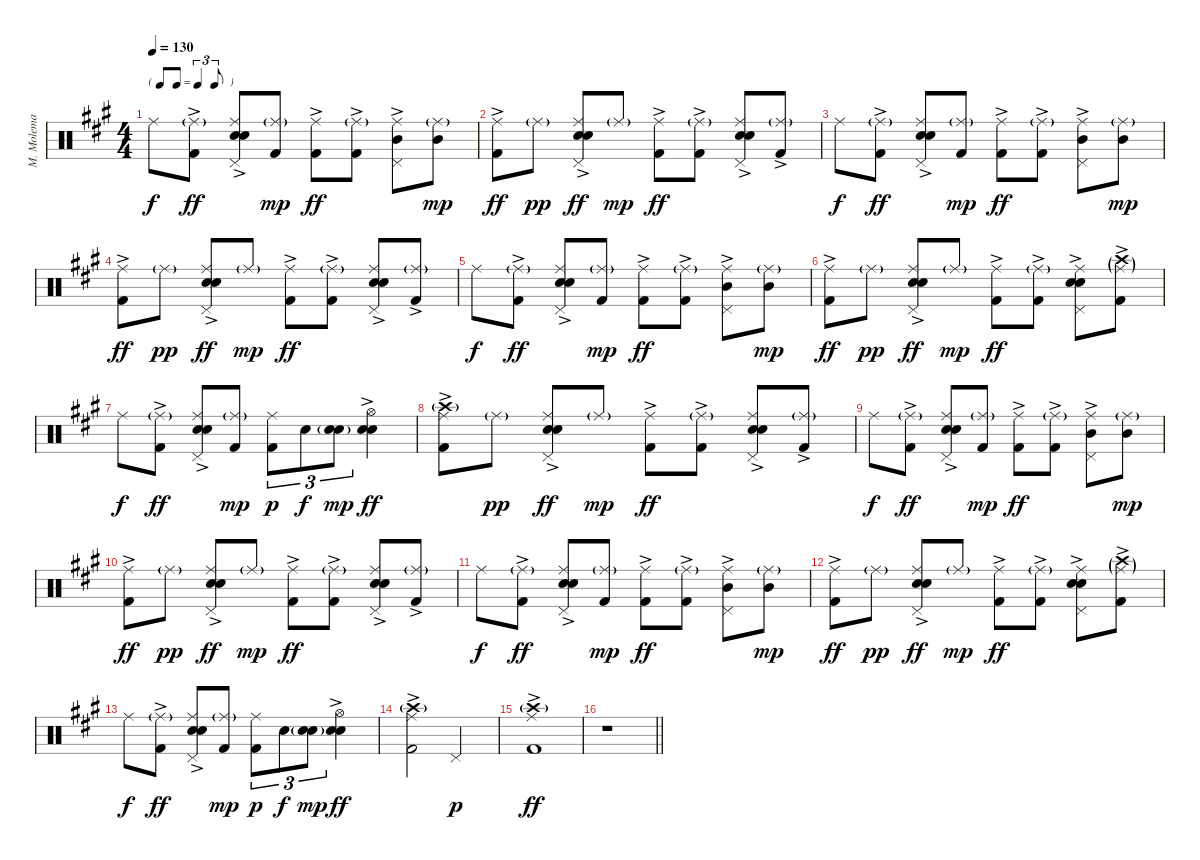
\track ("M. Molema" "M. Molema") {instrument percussion}
\staff {score}
\articulation defaults
\ts (4 4)
\tf triplet8th
\tempo 130
\clef neutral
\ks a "Ride (middle)".8{dy f}
("Ride (middle)"{g} "Kick (hit) 2"{ac}).8{dy ff} ("Ride (middle)" "Electric Snare (hit)"{ac} "Snare (hit) 2" "Pedal Hi-Hat (hit)").8 ("Ride (middle)"{g} "Kick (hit) 2").8{dy mp} ("Ride (middle)" "Kick (hit) 2"{ac}).8{dy ff} ("Ride (middle)"{g} "Kick (hit) 2"{ac}).8 ("Ride (middle)" "Mid Tom (hit)"{ac} "Pedal Hi-Hat (hit)").8 ("Ride (middle)"{g} "Mid Tom (hit)").8{dy mp} |
("Ride (middle)" "Kick (hit) 2"{ac}).8{dy ff} "Ride (middle)"{g}.8{dy pp} ("Ride (middle)" "Electric Snare (hit)"{ac} "Snare (hit) 2" "Pedal Hi-Hat (hit)").8{dy ff} "Ride (middle)"{g}.8{dy mp} ("Ride (middle)" "Kick (hit) 2"{ac}).8{dy ff} ("Ride (middle)"{g} "Kick (hit) 2"{ac}).8 ("Ride (middle)" "Electric Snare (hit)"{ac} "Snare (hit) 2" "Pedal Hi-Hat (hit)").8 ("Ride (middle)"{g} "Kick (hit) 2"{ac}).8 |
"Ride (middle)".8{dy f} ("Ride (middle)"{g} "Kick (hit) 2"{ac}).8{dy ff} ("Ride (middle)" "Electric Snare (hit)"{ac} "Snare (hit) 2" "Pedal Hi-Hat (hit)").8 ("Ride (middle)"{g} "Kick (hit) 2").8{dy mp} ("Ride (middle)" "Kick (hit) 2"{ac}).8{dy ff} ("Ride (middle)"{g} "Kick (hit) 2"{ac}).8 ("Ride (middle)" "Mid Tom (hit)"{ac} "Pedal Hi-Hat (hit)").8 ("Ride (middle)"{g} "Mid Tom (hit)").8{dy mp} |
("Ride (middle)" "Kick (hit) 2"{ac}).8{dy ff} "Ride (middle)"{g}.8{dy pp} ("Ride (middle)" "Electric Snare (hit)"{ac} "Snare (hit) 2" "Pedal Hi-Hat (hit)").8{dy ff} "Ride (middle)"{g}.8{dy mp} ("Ride (middle)" "Kick (hit) 2"{ac}).8{dy ff} ("Ride (middle)"{g} "Kick (hit) 2"{ac}).8 ("Ride (middle)" "Electric Snare (hit)"{ac} "Snare (hit) 2" "Pedal Hi-Hat (hit)").8 ("Ride (middle)"{g} "Kick (hit) 2"{ac}).8 |
"Ride (middle)".8{dy f} ("Ride (middle)"{g} "Kick (hit) 2"{ac}).8{dy ff} ("Ride (middle)" "Electric Snare (hit)"{ac} "Snare (hit) 2" "Pedal Hi-Hat (hit)").8 ("Ride (middle)"{g} "Kick (hit) 2").8{dy mp} ("Ride (middle)" "Kick (hit) 2"{ac}).8{dy ff} ("Ride (middle)"{g} "Kick (hit) 2"{ac}).8 ("Ride (middle)" "Mid Tom (hit)"{ac} "Pedal Hi-Hat (hit)").8 ("Ride (middle)"{g} "Mid Tom (hit)").8{dy mp} |
("Ride (middle)" "Kick (hit) 2"{ac}).8{dy ff} "Ride (middle)"{g}.8{dy pp} ("Ride (middle)" "Electric Snare (hit)"{ac} "Snare (hit) 2" "Pedal Hi-Hat (hit)").8{dy ff} "Ride (middle)"{g}.8{dy mp} ("Ride (middle)" "Kick (hit) 2"{ac}).8{dy ff} ("Ride (middle)"{g} "Kick (hit) 2"{ac}).8 ("Ride (middle)" "Electric Snare (hit)"{ac} "Snare (hit) 2" "Pedal Hi-Hat (hit)").8 ("Ride (middle)"{g} "Crash high (hit)"{g} "Kick (hit) 2"{ac}).8 |
"Ride (middle)".8{dy f} ("Ride (middle)"{g} "Kick (hit) 2"{ac}).8{dy ff} ("Ride (middle)" "Electric Snare (hit)"{ac} "Snare (hit) 2" "Pedal Hi-Hat (hit)").8 ("Ride (middle)"{g} "Kick (hit) 2").8{dy mp} ("Ride (middle)" "Kick (hit) 2").8{tu (3 2) dy p} "Snare (hit) 2".8{tu (3 2) dy f} ("Electric Snare (hit)"{g} "Snare (hit) 2").8{tu (3 2) dy mp} ("Hi-Hat (open)" "Electric Snare (hit)"{ac} "Snare (hit) 2").4{dy ff} |
("Ride (middle)" "Crash high (hit)"{g} "Kick (hit) 2"{ac}).8 "Ride (middle)"{g}.8{dy pp} ("Ride (middle)" "Electric Snare (hit)"{ac} "Snare (hit) 2" "Pedal Hi-Hat (hit)").8{dy ff} "Ride (middle)"{g}.8{dy mp} ("Ride (middle)" "Kick (hit) 2"{ac}).8{dy ff} ("Ride (middle)"{g} "Kick (hit) 2"{ac}).8 ("Ride (middle)" "Electric Snare (hit)"{ac} "Snare (hit) 2" "Pedal Hi-Hat (hit)").8 ("Ride (middle)"{g} "Kick (hit) 2"{ac}).8 |
"Ride (middle)".8{dy f} ("Ride (middle)"{g} "Kick (hit) 2"{ac}).8{dy ff} ("Ride (middle)" "Electric Snare (hit)"{ac} "Snare (hit) 2" "Pedal Hi-Hat (hit)").8 ("Ride (middle)"{g} "Kick (hit) 2").8{dy mp} ("Ride (middle)" "Kick (hit) 2"{ac}).8{dy ff} ("Ride (middle)"{g} "Kick (hit) 2"{ac}).8 ("Ride (middle)" "Mid Tom (hit)"{ac} "Pedal Hi-Hat (hit)").8 ("Ride (middle)"{g} "Mid Tom (hit)").8{dy mp} |
("Ride (middle)" "Kick (hit) 2"{ac}).8{dy ff} "Ride (middle)"{g}.8{dy pp} ("Ride (middle)" "Electric Snare (hit)"{ac} "Snare (hit) 2" "Pedal Hi-Hat (hit)").8{dy ff} "Ride (middle)"{g}.8{dy mp} ("Ride (middle)" "Kick (hit) 2"{ac}).8{dy ff} ("Ride (middle)"{g} "Kick (hit) 2"{ac}).8 ("Ride (middle)" "Electric Snare (hit)"{ac} "Snare (hit) 2" "Pedal Hi-Hat (hit)").8 ("Ride (middle)"{g} "Kick (hit) 2"{ac}).8 |
"Ride (middle)".8{dy f} ("Ride (middle)"{g} "Kick (hit) 2"{ac}).8{dy ff} ("Ride (middle)" "Electric Snare (hit)"{ac} "Snare (hit) 2" "Pedal Hi-Hat (hit)").8 ("Ride (middle)"{g} "Kick (hit) 2").8{dy mp} ("Ride (middle)" "Kick (hit) 2"{ac}).8{dy ff} ("Ride (middle)"{g} "Kick (hit) 2"{ac}).8 ("Ride (middle)" "Mid Tom (hit)"{ac} "Pedal Hi-Hat (hit)").8 ("Ride (middle)"{g} "Mid Tom (hit)").8{dy mp} |
("Ride (middle)" "Kick (hit) 2"{ac}).8{dy ff} "Ride (middle)"{g}.8{dy pp} ("Ride (middle)" "Electric Snare (hit)"{ac} "Snare (hit) 2" "Pedal Hi-Hat (hit)").8{dy ff} "Ride (middle)"{g}.8{dy mp} ("Ride (middle)" "Kick (hit) 2"{ac}).8{dy ff} ("Ride (middle)"{g} "Kick (hit) 2"{ac}).8 ("Ride (middle)" "Electric Snare (hit)"{ac} "Snare (hit) 2" "Pedal Hi-Hat (hit)").8 ("Ride (middle)"{g} "Crash high (hit)"{g} "Kick (hit) 2"{ac}).8 |
"Ride (middle)".8{dy f} ("Ride (middle)"{g} "Kick (hit) 2"{ac}).8{dy ff} ("Ride (middle)" "Electric Snare (hit)"{ac} "Snare (hit) 2" "Pedal Hi-Hat (hit)").8 ("Ride (middle)"{g} "Kick (hit) 2").8{dy mp} ("Ride (middle)" "Kick (hit) 2").8{tu (3 2) dy p} "Snare (hit) 2".8{tu (3 2) dy f} ("Electric Snare (hit)"{g} "Snare (hit) 2").8{tu (3 2) dy mp} ("Hi-Hat (open)" "Electric Snare (hit)"{ac} "Snare (hit) 2").4{dy ff} |
("Ride (middle)" "Crash high (hit)"{g} "Kick (hit) 2"{ac}).2 "Pedal Hi-Hat (hit)".2{dy p} |
("Ride (middle)" "Crash high (hit)"{g} "Kick (hit) 2"{ac}).1{dy ff} |
\barLineRight lightlight
r.1
